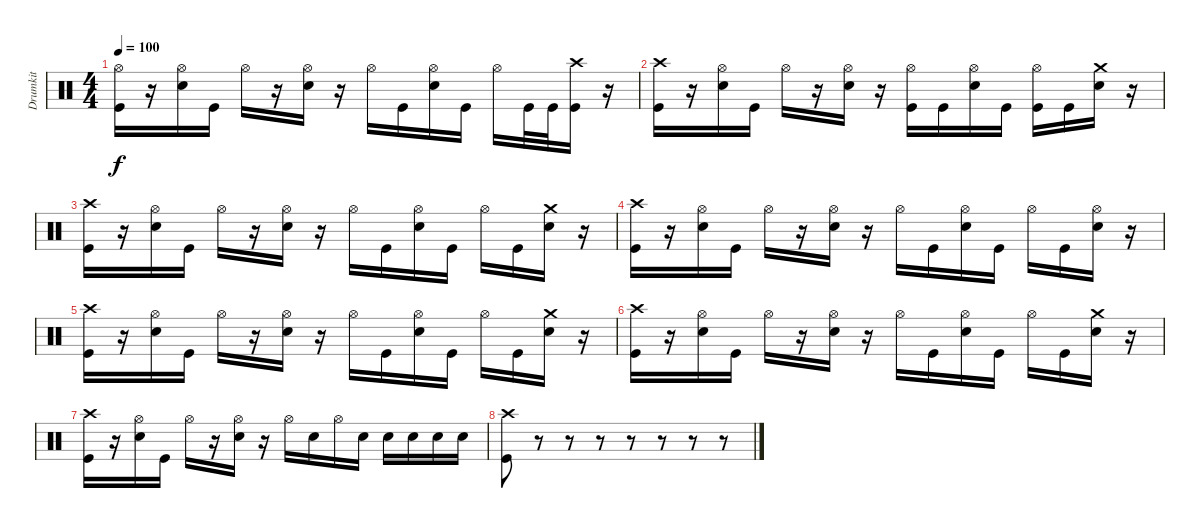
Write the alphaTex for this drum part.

\track ("Drumkit" "Drumkit") {solo instrument percussion}
\staff {score}
\articulation defaults
\ts (4 4)
\tempo 100
\clef neutral
\ks c
("Hi-Hat (open)" "Kick (hit)").16{dy f} r.16 ("Hi-Hat (open)" "Snare (hit) 2").16 "Kick (hit)".16 "Hi-Hat (open)".16 r.16 ("Hi-Hat (open)" "Snare (hit) 2").16 r.16 "Hi-Hat (open)".16 "Kick (hit)".16 ("Hi-Hat (open)" "Snare (hit) 2").16 "Kick (hit)".16 "Hi-Hat (open)".16 "Kick (hit)".32 "Kick (hit)".32 ("Crash high (hit)" "Kick (hit)").16 r.16 |
("Crash high (hit)" "Kick (hit)").16 r.16 ("Hi-Hat (open)" "Snare (hit) 2").16 "Kick (hit)".16 "Hi-Hat (open)".16 r.16 ("Hi-Hat (open)" "Snare (hit) 2").16 r.16 ("Hi-Hat (open)" "Kick (hit)").16 "Kick (hit)".16 ("Hi-Hat (open)" "Snare (hit) 2").16 "Kick (hit)".16 ("Hi-Hat (open)" "Kick (hit)").16 "Kick (hit)".16 ("Crash medium (hit)" "Snare (hit) 2").16 r.16 |
("Crash high (hit)" "Kick (hit)").16 r.16 ("Hi-Hat (open)" "Snare (hit) 2").16 "Kick (hit)".16 "Hi-Hat (open)".16 r.16 ("Hi-Hat (open)" "Snare (hit) 2").16 r.16 "Hi-Hat (open)".16 "Kick (hit)".16 ("Hi-Hat (open)" "Snare (hit) 2").16 "Kick (hit)".16 "Hi-Hat (open)".16 "Kick (hit)".16 ("Crash medium (hit)" "Snare (hit) 2").16 r.16 |
("Crash high (hit)" "Kick (hit)").16 r.16 ("Hi-Hat (open)" "Snare (hit) 2").16 "Kick (hit)".16 "Hi-Hat (open)".16 r.16 ("Hi-Hat (open)" "Snare (hit) 2").16 r.16 "Hi-Hat (open)".16 "Kick (hit)".16 ("Hi-Hat (open)" "Snare (hit) 2").16 "Kick (hit)".16 "Hi-Hat (open)".16 "Kick (hit)".16 ("Hi-Hat (open)" "Snare (hit) 2").16 r.16 |
("Crash high (hit)" "Kick (hit)").16 r.16 ("Hi-Hat (open)" "Snare (hit) 2").16 "Kick (hit)".16 "Hi-Hat (open)".16 r.16 ("Hi-Hat (open)" "Snare (hit) 2").16 r.16 "Hi-Hat (open)".16 "Kick (hit)".16 ("Hi-Hat (open)" "Snare (hit) 2").16 "Kick (hit)".16 "Hi-Hat (open)".16 "Kick (hit)".16 ("Crash medium (hit)" "Snare (hit) 2").16 r.16 |
("Crash high (hit)" "Kick (hit)").16 r.16 ("Hi-Hat (open)" "Snare (hit) 2").16 "Kick (hit)".16 "Hi-Hat (open)".16 r.16 ("Hi-Hat (open)" "Snare (hit) 2").16 r.16 "Hi-Hat (open)".16 "Kick (hit)".16 ("Hi-Hat (open)" "Snare (hit) 2").16 "Kick (hit)".16 "Hi-Hat (open)".16 "Kick (hit)".16 ("Crash medium (hit)" "Snare (hit) 2").16 r.16 |
("Crash high (hit)" "Kick (hit)").16 r.16 ("Hi-Hat (open)" "Snare (hit) 2").16 "Kick (hit)".16 "Hi-Hat (open)".16 r.16 ("Hi-Hat (open)" "Snare (hit) 2").16 r.16 "Hi-Hat (open)".16 "Snare (hit) 2".16 "Hi-Hat (open)".16 "Snare (hit) 2".16 "Snare (hit) 2".16 "Snare (hit) 2".16 "Snare (hit) 2".16 "Snare (hit) 2".16 |
("Crash high (hit)" "Kick (hit)").8 r.8 r.8 r.8 r.8 r.8 r.8 r.8
